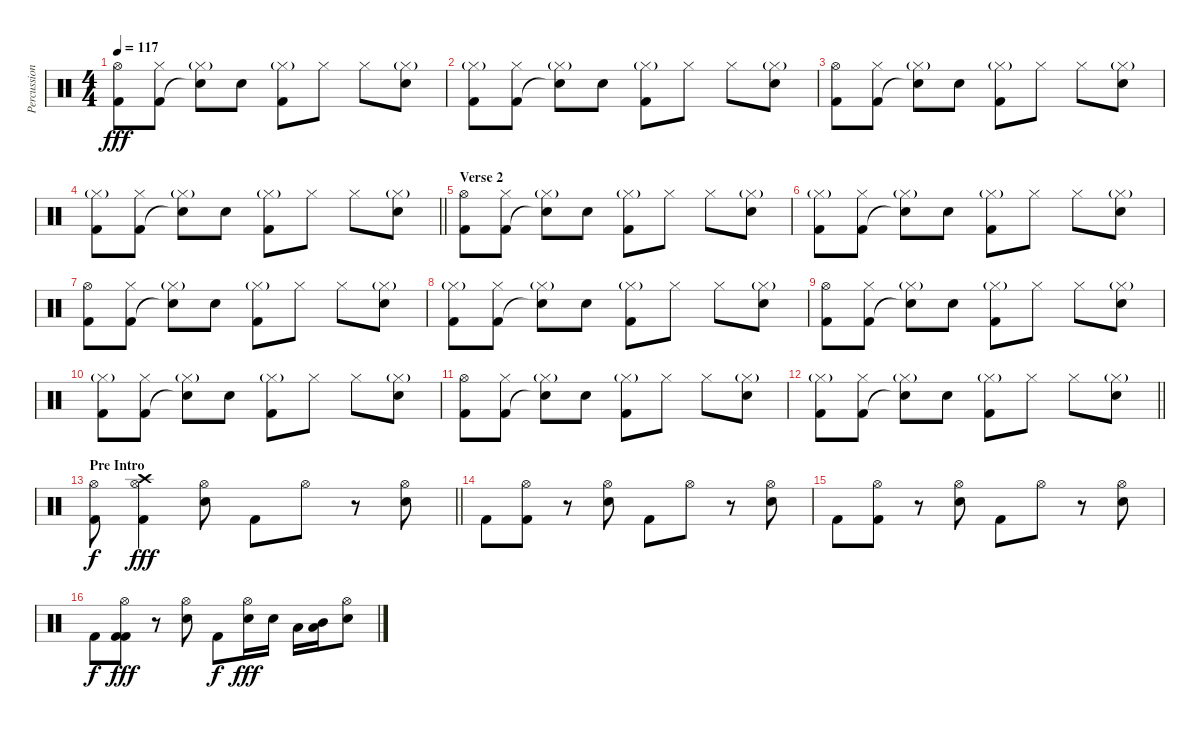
\track ("Percussion 1" "Percussion") {instrument percussion}
\staff {score}
\articulation defaults
\ts (4 4)
\tempo 117
\clef neutral
\ks c
("Hi-Hat (open)" "Kick (hit) 2").8{dy fff} ("Hi-Hat (closed)" "Kick (hit) 2").8 ("Hi-Hat (closed)"{g} "Snare (hit)"{t}).8 "Electric Snare (hit)".8 ("Hi-Hat (closed)"{g} "Kick (hit) 2").8 "Hi-Hat (closed)".8 "Hi-Hat (closed)".8 ("Hi-Hat (closed)"{g} "Electric Snare (hit)").8 |
("Hi-Hat (closed)"{g} "Kick (hit) 2").8 ("Hi-Hat (closed)" "Kick (hit) 2").8 ("Hi-Hat (closed)"{g} "Snare (hit)"{t}).8 "Electric Snare (hit)".8 ("Hi-Hat (closed)"{g} "Kick (hit) 2").8 "Hi-Hat (closed)".8 "Hi-Hat (closed)".8 ("Hi-Hat (closed)"{g} "Electric Snare (hit)").8 |
("Hi-Hat (open)" "Kick (hit) 2").8 ("Hi-Hat (closed)" "Kick (hit) 2").8 ("Hi-Hat (closed)"{g} "Snare (hit)"{t}).8 "Electric Snare (hit)".8 ("Hi-Hat (closed)"{g} "Kick (hit) 2").8 "Hi-Hat (closed)".8 "Hi-Hat (closed)".8 ("Hi-Hat (closed)"{g} "Electric Snare (hit)").8 |
\barLineRight lightlight
("Hi-Hat (closed)"{g} "Kick (hit) 2").8 ("Hi-Hat (closed)" "Kick (hit) 2").8 ("Hi-Hat (closed)"{g} "Snare (hit)"{t}).8 "Electric Snare (hit)".8 ("Hi-Hat (closed)"{g} "Kick (hit) 2").8 "Hi-Hat (closed)".8 "Hi-Hat (closed)".8 ("Hi-Hat (closed)"{g} "Electric Snare (hit)").8 |
\section ("" "Verse 2")
("Hi-Hat (open)" "Kick (hit) 2").8 ("Hi-Hat (closed)" "Kick (hit) 2").8 ("Hi-Hat (closed)"{g} "Snare (hit)"{t}).8 "Electric Snare (hit)".8 ("Hi-Hat (closed)"{g} "Kick (hit) 2").8 "Hi-Hat (closed)".8 "Hi-Hat (closed)".8 ("Hi-Hat (closed)"{g} "Electric Snare (hit)").8 |
("Hi-Hat (closed)"{g} "Kick (hit) 2").8 ("Hi-Hat (closed)" "Kick (hit) 2").8 ("Hi-Hat (closed)"{g} "Snare (hit)"{t}).8 "Electric Snare (hit)".8 ("Hi-Hat (closed)"{g} "Kick (hit) 2").8 "Hi-Hat (closed)".8 "Hi-Hat (closed)".8 ("Hi-Hat (closed)"{g} "Electric Snare (hit)").8 |
("Hi-Hat (open)" "Kick (hit) 2").8 ("Hi-Hat (closed)" "Kick (hit) 2").8 ("Hi-Hat (closed)"{g} "Snare (hit)"{t}).8 "Electric Snare (hit)".8 ("Hi-Hat (closed)"{g} "Kick (hit) 2").8 "Hi-Hat (closed)".8 "Hi-Hat (closed)".8 ("Hi-Hat (closed)"{g} "Electric Snare (hit)").8 |
("Hi-Hat (closed)"{g} "Kick (hit) 2").8 ("Hi-Hat (closed)" "Kick (hit) 2").8 ("Hi-Hat (closed)"{g} "Snare (hit)"{t}).8 "Electric Snare (hit)".8 ("Hi-Hat (closed)"{g} "Kick (hit) 2").8 "Hi-Hat (closed)".8 "Hi-Hat (closed)".8 ("Hi-Hat (closed)"{g} "Electric Snare (hit)").8 |
("Hi-Hat (open)" "Kick (hit) 2").8 ("Hi-Hat (closed)" "Kick (hit) 2").8 ("Hi-Hat (closed)"{g} "Snare (hit)"{t}).8 "Electric Snare (hit)".8 ("Hi-Hat (closed)"{g} "Kick (hit) 2").8 "Hi-Hat (closed)".8 "Hi-Hat (closed)".8 ("Hi-Hat (closed)"{g} "Electric Snare (hit)").8 |
("Hi-Hat (closed)"{g} "Kick (hit) 2").8 ("Hi-Hat (closed)" "Kick (hit) 2").8 ("Hi-Hat (closed)"{g} "Snare (hit)"{t}).8 "Electric Snare (hit)".8 ("Hi-Hat (closed)"{g} "Kick (hit) 2").8 "Hi-Hat (closed)".8 "Hi-Hat (closed)".8 ("Hi-Hat (closed)"{g} "Electric Snare (hit)").8 |
("Hi-Hat (open)" "Kick (hit) 2").8 ("Hi-Hat (closed)" "Kick (hit) 2").8 ("Hi-Hat (closed)"{g} "Snare (hit)"{t}).8 "Electric Snare (hit)".8 ("Hi-Hat (closed)"{g} "Kick (hit) 2").8 "Hi-Hat (closed)".8 "Hi-Hat (closed)".8 ("Hi-Hat (closed)"{g} "Electric Snare (hit)").8 |
\barLineRight lightlight
("Hi-Hat (closed)"{g} "Kick (hit) 2").8 ("Hi-Hat (closed)" "Kick (hit) 2").8 ("Hi-Hat (closed)"{g} "Snare (hit)"{t}).8 "Electric Snare (hit)".8 ("Hi-Hat (closed)"{g} "Kick (hit) 2").8 "Hi-Hat (closed)".8 "Hi-Hat (closed)".8 ("Hi-Hat (closed)"{g} "Electric Snare (hit)").8 |
\section ("" "Pre Intro")
\barLineRight lightlight
("Hi-Hat (open)" "Kick (hit) 2").8{dy f} ("Hi-Hat (open)" "Crash high (hit)" "Kick (hit) 2").4{dy fff} ("Hi-Hat (open)" "Electric Snare (hit)").8 "Kick (hit) 2".8 "Hi-Hat (open)".8 r.8 ("Hi-Hat (open)" "Electric Snare (hit)").8 |
"Kick (hit) 2".8 ("Hi-Hat (open)" "Kick (hit) 2").8 r.8 ("Hi-Hat (open)" "Electric Snare (hit)").8 "Kick (hit) 2".8 "Hi-Hat (open)".8 r.8 ("Hi-Hat (open)" "Electric Snare (hit)").8 |
"Kick (hit) 2".8 ("Hi-Hat (open)" "Kick (hit) 2").8 r.8 ("Hi-Hat (open)" "Electric Snare (hit)").8 "Kick (hit) 2".8 "Hi-Hat (open)".8 r.8 ("Hi-Hat (open)" "Electric Snare (hit)").8 |
"Kick (hit) 2".8{dy f} ("Hi-Hat (open)" "Kick (hit) 2" "Kick (hit) 2").8{dy fff} r.8 ("Hi-Hat (open)" "Electric Snare (hit)").8 "Kick (hit) 2".8{dy f} ("Hi-Hat (open)" "Electric Snare (hit)").16{dy fff} "Electric Snare (hit)".16 "Low Tom (hit)".16 ("Low Tom (hit)" "Mid Tom (hit)").16 ("Electric Snare (hit)" "Hi-Hat (open)").8
